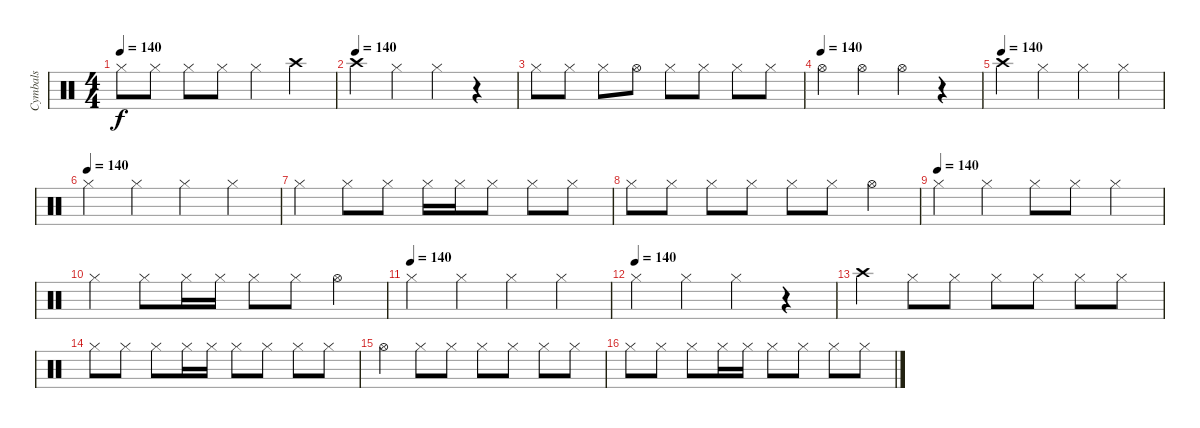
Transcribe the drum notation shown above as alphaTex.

\track ("Cymbals" "Cymbals") {instrument percussion}
\staff {score}
\articulation defaults
\ts (4 4)
\tempo 140
\clef neutral
\ks c "Hi-Hat (closed)".8{dy f} "Hi-Hat (closed)".8 "Hi-Hat (closed)".8 "Hi-Hat (closed)".8 "Hi-Hat (closed)".4 "Crash high (hit)".4
|
\tempo (140)
"Crash high (hit)".4 "Hi-Hat (closed)".4 "Hi-Hat (closed)".4 r.4 |
"Hi-Hat (closed)".8 "Hi-Hat (closed)".8 "Hi-Hat (closed)".8 "Hi-Hat (open)".8 "Hi-Hat (closed)".8 "Hi-Hat (closed)".8 "Hi-Hat (closed)".8 "Hi-Hat (closed)".8 |
\tempo (140)
"Hi-Hat (open)".4 "Hi-Hat (open)".4 "Hi-Hat (open)".4 r.4 |
\tempo (140)
"Crash high (hit)".4 "Hi-Hat (closed)".4 "Hi-Hat (closed)".4 "Hi-Hat (closed)".4 |
\tempo (140)
"Hi-Hat (closed)".4 "Hi-Hat (closed)".4 "Hi-Hat (closed)".4 "Hi-Hat (closed)".4 |
"Hi-Hat (closed)".4 "Hi-Hat (closed)".8 "Hi-Hat (closed)".8 "Hi-Hat (closed)".16 "Hi-Hat (closed)".16 "Hi-Hat (closed)".8 "Hi-Hat (closed)".8 "Hi-Hat (closed)".8 |
"Hi-Hat (closed)".8 "Hi-Hat (closed)".8 "Hi-Hat (closed)".8 "Hi-Hat (closed)".8 "Hi-Hat (closed)".8 "Hi-Hat (closed)".8 "Hi-Hat (open)".4 |
\tempo (140)
"Hi-Hat (closed)".4 "Hi-Hat (closed)".4 "Hi-Hat (closed)".8 "Hi-Hat (closed)".8 "Hi-Hat (closed)".4 |
"Hi-Hat (closed)".4 "Hi-Hat (closed)".8 "Hi-Hat (closed)".16 "Hi-Hat (closed)".16 "Hi-Hat (closed)".8 "Hi-Hat (closed)".8 "Hi-Hat (open)".4 |
\tempo (140)
"Hi-Hat (closed)".4 "Hi-Hat (closed)".4 "Hi-Hat (closed)".4 "Hi-Hat (closed)".4 |
\tempo (140)
"Hi-Hat (closed)".4 "Hi-Hat (closed)".4 "Hi-Hat (closed)".4 r.4 |
"Crash high (hit)".4 "Hi-Hat (closed)".8 "Hi-Hat (closed)".8 "Hi-Hat (closed)".8 "Hi-Hat (closed)".8 "Hi-Hat (closed)".8 "Hi-Hat (closed)".8 |
"Hi-Hat (closed)".8 "Hi-Hat (closed)".8 "Hi-Hat (closed)".8 "Hi-Hat (closed)".16 "Hi-Hat (closed)".16 "Hi-Hat (closed)".8 "Hi-Hat (closed)".8 "Hi-Hat (closed)".8 "Hi-Hat (closed)".8 |
"Hi-Hat (open)".4 "Hi-Hat (closed)".8 "Hi-Hat (closed)".8 "Hi-Hat (closed)".8 "Hi-Hat (closed)".8 "Hi-Hat (closed)".8 "Hi-Hat (closed)".8 |
"Hi-Hat (closed)".8 "Hi-Hat (closed)".8 "Hi-Hat (closed)".8 "Hi-Hat (closed)".16 "Hi-Hat (closed)".16 "Hi-Hat (closed)".8 "Hi-Hat (closed)".8 "Hi-Hat (closed)".8 "Hi-Hat (closed)".8
